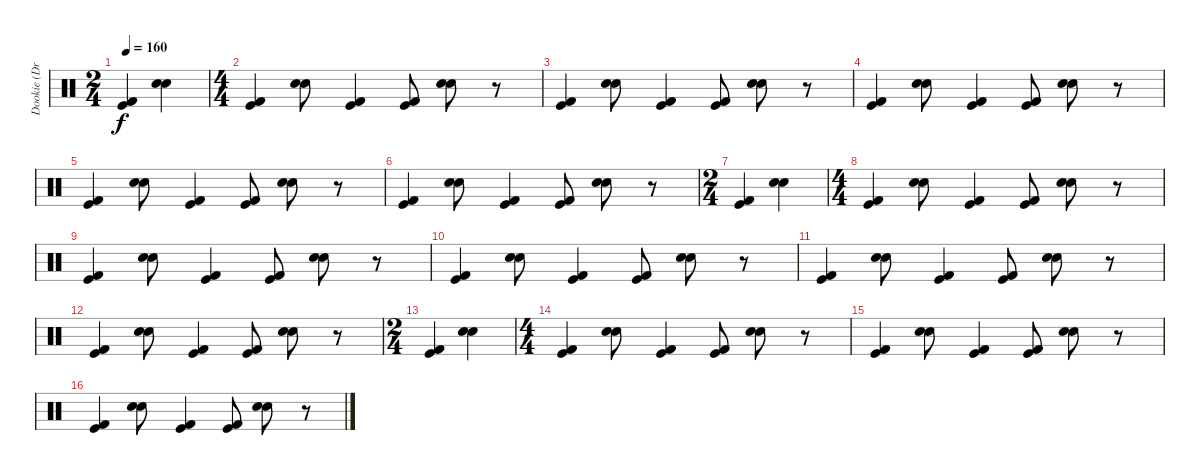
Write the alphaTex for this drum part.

\track ("Dookie (Drums)" "Dookie (Dr") {instrument percussion}
\staff {score}
\articulation defaults
\ts (2 4)
\tempo 160
\clef neutral
\ks c
("Kick (hit) 2" "Kick (hit)").4{dy f} ("Electric Snare (hit)" "Electric Snare (hit)").4 |
\ts (4 4)
("Kick (hit) 2" "Kick (hit)").4 ("Electric Snare (hit)" "Electric Snare (hit)").8 ("Kick (hit) 2" "Kick (hit)").4 ("Kick (hit) 2" "Kick (hit)").8 ("Electric Snare (hit)" "Electric Snare (hit)").8 r.8 |
("Kick (hit) 2" "Kick (hit)").4 ("Electric Snare (hit)" "Electric Snare (hit)").8 ("Kick (hit) 2" "Kick (hit)").4 ("Kick (hit) 2" "Kick (hit)").8 ("Electric Snare (hit)" "Electric Snare (hit)").8 r.8 |
("Kick (hit) 2" "Kick (hit)").4 ("Electric Snare (hit)" "Electric Snare (hit)").8 ("Kick (hit) 2" "Kick (hit)").4 ("Kick (hit) 2" "Kick (hit)").8 ("Electric Snare (hit)" "Electric Snare (hit)").8 r.8 |
("Kick (hit) 2" "Kick (hit)").4 ("Electric Snare (hit)" "Electric Snare (hit)").8 ("Kick (hit) 2" "Kick (hit)").4 ("Kick (hit) 2" "Kick (hit)").8 ("Electric Snare (hit)" "Electric Snare (hit)").8 r.8 |
("Kick (hit) 2" "Kick (hit)").4 ("Electric Snare (hit)" "Electric Snare (hit)").8 ("Kick (hit) 2" "Kick (hit)").4 ("Kick (hit) 2" "Kick (hit)").8 ("Electric Snare (hit)" "Electric Snare (hit)").8 r.8 |
\ts (2 4)
("Kick (hit) 2" "Kick (hit)").4 ("Electric Snare (hit)" "Electric Snare (hit)").4 |
\ts (4 4)
("Kick (hit) 2" "Kick (hit)").4 ("Electric Snare (hit)" "Electric Snare (hit)").8 ("Kick (hit) 2" "Kick (hit)").4 ("Kick (hit) 2" "Kick (hit)").8 ("Electric Snare (hit)" "Electric Snare (hit)").8 r.8 |
("Kick (hit) 2" "Kick (hit)").4 ("Electric Snare (hit)" "Electric Snare (hit)").8 ("Kick (hit) 2" "Kick (hit)").4 ("Kick (hit) 2" "Kick (hit)").8 ("Electric Snare (hit)" "Electric Snare (hit)").8 r.8 |
("Kick (hit) 2" "Kick (hit)").4 ("Electric Snare (hit)" "Electric Snare (hit)").8 ("Kick (hit) 2" "Kick (hit)").4 ("Kick (hit) 2" "Kick (hit)").8 ("Electric Snare (hit)" "Electric Snare (hit)").8 r.8 |
("Kick (hit) 2" "Kick (hit)").4 ("Electric Snare (hit)" "Electric Snare (hit)").8 ("Kick (hit) 2" "Kick (hit)").4 ("Kick (hit) 2" "Kick (hit)").8 ("Electric Snare (hit)" "Electric Snare (hit)").8 r.8 |
("Kick (hit) 2" "Kick (hit)").4 ("Electric Snare (hit)" "Electric Snare (hit)").8 ("Kick (hit) 2" "Kick (hit)").4 ("Kick (hit) 2" "Kick (hit)").8 ("Electric Snare (hit)" "Electric Snare (hit)").8 r.8 |
\ts (2 4)
("Kick (hit) 2" "Kick (hit)").4 ("Electric Snare (hit)" "Electric Snare (hit)").4 |
\ts (4 4)
("Kick (hit) 2" "Kick (hit)").4 ("Electric Snare (hit)" "Electric Snare (hit)").8 ("Kick (hit) 2" "Kick (hit)").4 ("Kick (hit) 2" "Kick (hit)").8 ("Electric Snare (hit)" "Electric Snare (hit)").8 r.8 |
("Kick (hit) 2" "Kick (hit)").4 ("Electric Snare (hit)" "Electric Snare (hit)").8 ("Kick (hit) 2" "Kick (hit)").4 ("Kick (hit) 2" "Kick (hit)").8 ("Electric Snare (hit)" "Electric Snare (hit)").8 r.8 |
("Kick (hit) 2" "Kick (hit)").4 ("Electric Snare (hit)" "Electric Snare (hit)").8 ("Kick (hit) 2" "Kick (hit)").4 ("Kick (hit) 2" "Kick (hit)").8 ("Electric Snare (hit)" "Electric Snare (hit)").8 r.8
